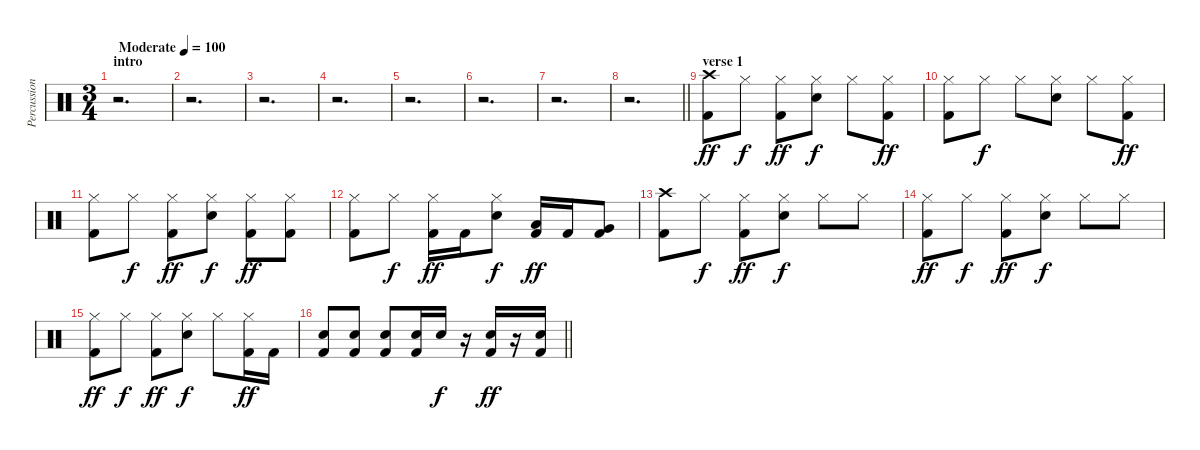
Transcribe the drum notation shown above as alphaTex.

\track ("Percussion" "Percussion") {instrument percussion}
\staff {score}
\articulation defaults
\ts (3 4)
\section ("" "intro")
\tempo (100 "Moderate")
\clef neutral
\ks c
r.2{d dy ff} |
r.2{d} |
r.2{d} |
r.2{d} |
r.2{d} |
r.2{d} |
r.2{d} |
\barLineRight lightlight
r.2{d} |
\section ("" "verse 1")
("Crash high (hit)" "Kick (hit) 2").8 "Hi-Hat (closed)".8{dy f} ("Hi-Hat (closed)" "Kick (hit) 2").8{dy ff} ("Hi-Hat (closed)" "Snare (hit) 2").8{dy f} "Hi-Hat (closed)".8 ("Hi-Hat (closed)" "Kick (hit) 2").8{dy ff} |
("Hi-Hat (closed)" "Kick (hit) 2").8 "Hi-Hat (closed)".8{dy f} "Hi-Hat (closed)".8 ("Hi-Hat (closed)" "Snare (hit) 2").8 "Hi-Hat (closed)".8 ("Hi-Hat (closed)" "Kick (hit) 2").8{dy ff} |
("Hi-Hat (closed)" "Kick (hit) 2").8 "Hi-Hat (closed)".8{dy f} ("Hi-Hat (closed)" "Kick (hit) 2").8{dy ff} ("Hi-Hat (closed)" "Snare (hit) 2").8{dy f} ("Hi-Hat (closed)" "Kick (hit) 2").8{dy ff} ("Hi-Hat (closed)" "Kick (hit) 2").8 |
("Hi-Hat (closed)" "Kick (hit) 2").8 "Hi-Hat (closed)".8{dy f} ("Hi-Hat (closed)" "Kick (hit) 2").16{dy ff} "Kick (hit) 2".16 ("Hi-Hat (closed)" "Snare (hit) 2").8{dy f} ("Low Tom (hit)" "Kick (hit) 2").16{dy ff} "Kick (hit) 2".16 ("Very Low Tom (hit)" "Kick (hit) 2").8 |
("Crash high (hit)" "Kick (hit) 2").8 "Hi-Hat (closed)".8{dy f} ("Hi-Hat (closed)" "Kick (hit) 2").8{dy ff} ("Hi-Hat (closed)" "Snare (hit) 2").8{dy f} "Hi-Hat (closed)".8 "Hi-Hat (closed)".8 |
("Hi-Hat (closed)" "Kick (hit) 2").8{dy ff} "Hi-Hat (closed)".8{dy f} ("Hi-Hat (closed)" "Kick (hit) 2").8{dy ff} ("Hi-Hat (closed)" "Snare (hit) 2").8{dy f} "Hi-Hat (closed)".8 "Hi-Hat (closed)".8 |
("Hi-Hat (closed)" "Kick (hit) 2").8{dy ff} "Hi-Hat (closed)".8{dy f} ("Hi-Hat (closed)" "Kick (hit) 2").8{dy ff} ("Hi-Hat (closed)" "Snare (hit) 2").8{dy f} "Hi-Hat (closed)".8 ("Hi-Hat (closed)" "Kick (hit) 2").16{dy ff} "Kick (hit) 2".16 |
\barLineRight lightlight
("Snare (hit) 2" "Kick (hit) 2").8 ("Snare (hit) 2" "Kick (hit) 2").8 ("Snare (hit) 2" "Kick (hit) 2").8 ("Snare (hit) 2" "Kick (hit) 2").16 "Snare (hit) 2".16{dy f} r.16 ("Snare (hit) 2" "Kick (hit) 2").16{dy ff} r.16 ("Snare (hit) 2" "Kick (hit) 2").16
